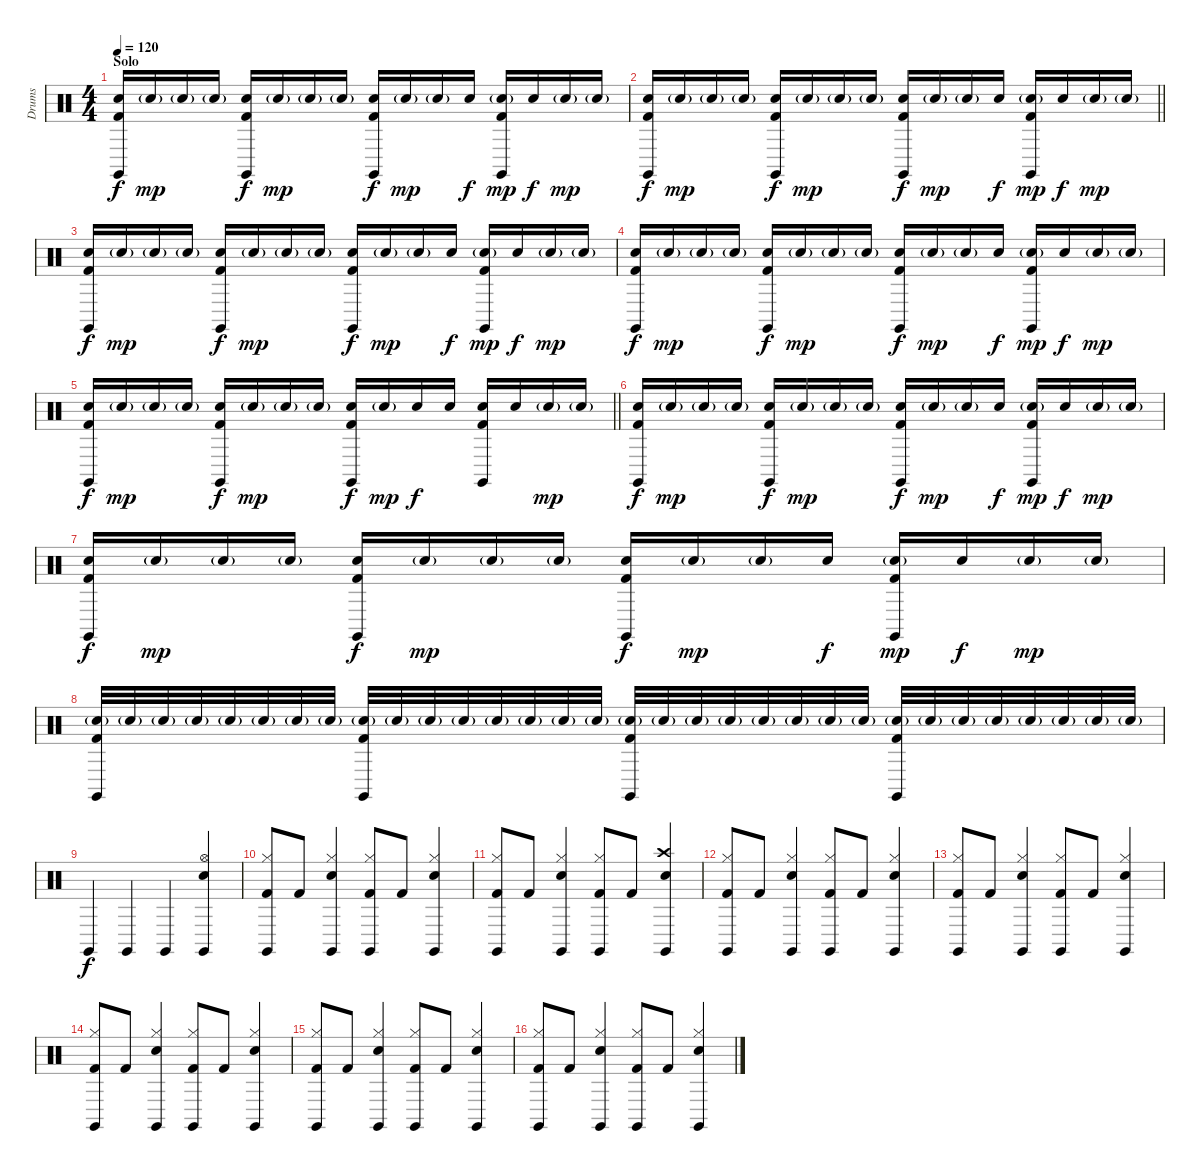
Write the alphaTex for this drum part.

\track ("Drums" "Drums") {instrument percussion}
\staff {score}
\articulation defaults
\ts (4 4)
\section ("" "Solo")
\tempo 120
\clef neutral
\ks c
("Claves (hit)" "Electric Snare (hit)" "Kick (hit) 2").16{dy f} "Electric Snare (hit)"{g}.16{dy mp} "Electric Snare (hit)"{g}.16 "Electric Snare (hit)"{g}.16 ("Claves (hit)" "Electric Snare (hit)" "Kick (hit) 2").16{dy f} "Electric Snare (hit)"{g}.16{dy mp} "Electric Snare (hit)"{g}.16 "Electric Snare (hit)"{g}.16 ("Claves (hit)" "Electric Snare (hit)" "Kick (hit) 2").16{dy f} "Electric Snare (hit)"{g}.16{dy mp} "Electric Snare (hit)"{g}.16 "Electric Snare (hit)".16{dy f} ("Claves (hit)" "Electric Snare (hit)"{g} "Kick (hit) 2").16{dy mp} "Electric Snare (hit)".16{dy f} "Electric Snare (hit)"{g}.16{dy mp} "Electric Snare (hit)"{g}.16 |
\barLineRight lightlight
("Claves (hit)" "Electric Snare (hit)" "Kick (hit) 2").16{dy f} "Electric Snare (hit)"{g}.16{dy mp} "Electric Snare (hit)"{g}.16 "Electric Snare (hit)"{g}.16 ("Claves (hit)" "Electric Snare (hit)" "Kick (hit) 2").16{dy f} "Electric Snare (hit)"{g}.16{dy mp} "Electric Snare (hit)"{g}.16 "Electric Snare (hit)"{g}.16 ("Claves (hit)" "Electric Snare (hit)" "Kick (hit) 2").16{dy f} "Electric Snare (hit)"{g}.16{dy mp} "Electric Snare (hit)"{g}.16 "Electric Snare (hit)".16{dy f} ("Claves (hit)" "Electric Snare (hit)"{g} "Kick (hit) 2").16{dy mp} "Electric Snare (hit)".16{dy f} "Electric Snare (hit)"{g}.16{dy mp} "Electric Snare (hit)"{g}.16 |
("Claves (hit)" "Electric Snare (hit)" "Kick (hit) 2").16{dy f} "Electric Snare (hit)"{g}.16{dy mp} "Electric Snare (hit)"{g}.16 "Electric Snare (hit)"{g}.16 ("Claves (hit)" "Electric Snare (hit)" "Kick (hit) 2").16{dy f} "Electric Snare (hit)"{g}.16{dy mp} "Electric Snare (hit)"{g}.16 "Electric Snare (hit)"{g}.16 ("Claves (hit)" "Electric Snare (hit)" "Kick (hit) 2").16{dy f} "Electric Snare (hit)"{g}.16{dy mp} "Electric Snare (hit)"{g}.16 "Electric Snare (hit)".16{dy f} ("Claves (hit)" "Electric Snare (hit)"{g} "Kick (hit) 2").16{dy mp} "Electric Snare (hit)".16{dy f} "Electric Snare (hit)"{g}.16{dy mp} "Electric Snare (hit)"{g}.16 |
("Claves (hit)" "Electric Snare (hit)" "Kick (hit) 2").16{dy f} "Electric Snare (hit)"{g}.16{dy mp} "Electric Snare (hit)"{g}.16 "Electric Snare (hit)"{g}.16 ("Claves (hit)" "Electric Snare (hit)" "Kick (hit) 2").16{dy f} "Electric Snare (hit)"{g}.16{dy mp} "Electric Snare (hit)"{g}.16 "Electric Snare (hit)"{g}.16 ("Claves (hit)" "Electric Snare (hit)" "Kick (hit) 2").16{dy f} "Electric Snare (hit)"{g}.16{dy mp} "Electric Snare (hit)"{g}.16 "Electric Snare (hit)".16{dy f} ("Claves (hit)" "Electric Snare (hit)"{g} "Kick (hit) 2").16{dy mp} "Electric Snare (hit)".16{dy f} "Electric Snare (hit)"{g}.16{dy mp} "Electric Snare (hit)"{g}.16 |
\barLineRight lightlight
("Claves (hit)" "Electric Snare (hit)" "Kick (hit) 2").16{dy f} "Electric Snare (hit)"{g}.16{dy mp} "Electric Snare (hit)"{g}.16 "Electric Snare (hit)"{g}.16 ("Claves (hit)" "Electric Snare (hit)" "Kick (hit) 2").16{dy f} "Electric Snare (hit)"{g}.16{dy mp} "Electric Snare (hit)"{g}.16 "Electric Snare (hit)"{g}.16 ("Claves (hit)" "Electric Snare (hit)" "Kick (hit) 2").16{dy f} "Electric Snare (hit)"{g}.16{dy mp} "Electric Snare (hit)".16{dy f} "Electric Snare (hit)".16 ("Claves (hit)" "Electric Snare (hit)" "Kick (hit) 2").16 "Electric Snare (hit)".16 "Electric Snare (hit)"{g}.16{dy mp} "Electric Snare (hit)"{g}.16 |
("Claves (hit)" "Electric Snare (hit)" "Kick (hit) 2").16{dy f} "Electric Snare (hit)"{g}.16{dy mp} "Electric Snare (hit)"{g}.16 "Electric Snare (hit)"{g}.16 ("Claves (hit)" "Electric Snare (hit)" "Kick (hit) 2").16{dy f} "Electric Snare (hit)"{g}.16{dy mp} "Electric Snare (hit)"{g}.16 "Electric Snare (hit)"{g}.16 ("Claves (hit)" "Electric Snare (hit)" "Kick (hit) 2").16{dy f} "Electric Snare (hit)"{g}.16{dy mp} "Electric Snare (hit)"{g}.16 "Electric Snare (hit)".16{dy f} ("Claves (hit)" "Electric Snare (hit)"{g} "Kick (hit) 2").16{dy mp} "Electric Snare (hit)".16{dy f} "Electric Snare (hit)"{g}.16{dy mp} "Electric Snare (hit)"{g}.16 |
("Claves (hit)" "Electric Snare (hit)" "Kick (hit) 2").16{dy f} "Electric Snare (hit)"{g}.16{dy mp} "Electric Snare (hit)"{g}.16 "Electric Snare (hit)"{g}.16 ("Claves (hit)" "Electric Snare (hit)" "Kick (hit) 2").16{dy f} "Electric Snare (hit)"{g}.16{dy mp} "Electric Snare (hit)"{g}.16 "Electric Snare (hit)"{g}.16 ("Claves (hit)" "Electric Snare (hit)" "Kick (hit) 2").16{dy f} "Electric Snare (hit)"{g}.16{dy mp} "Electric Snare (hit)"{g}.16 "Electric Snare (hit)".16{dy f} ("Claves (hit)" "Electric Snare (hit)"{g} "Kick (hit) 2").16{dy mp} "Electric Snare (hit)".16{dy f} "Electric Snare (hit)"{g}.16{dy mp} "Electric Snare (hit)"{g}.16 |
("Electric Snare (hit)"{g} "Kick (hit) 2" "Claves (hit)").32 "Electric Snare (hit)"{g}.32 "Electric Snare (hit)"{g}.32 "Electric Snare (hit)"{g}.32 "Electric Snare (hit)"{g}.32 "Electric Snare (hit)"{g}.32 "Electric Snare (hit)"{g}.32 "Electric Snare (hit)"{g}.32 ("Electric Snare (hit)"{g} "Kick (hit) 2" "Claves (hit)").32 "Electric Snare (hit)"{g}.32 "Electric Snare (hit)"{g}.32 "Electric Snare (hit)"{g}.32 "Electric Snare (hit)"{g}.32 "Electric Snare (hit)"{g}.32 "Electric Snare (hit)"{g}.32 "Electric Snare (hit)"{g}.32 ("Electric Snare (hit)"{g} "Kick (hit) 2" "Claves (hit)").32 "Electric Snare (hit)"{g}.32 "Electric Snare (hit)"{g}.32 "Electric Snare (hit)"{g}.32 "Electric Snare (hit)"{g}.32 "Electric Snare (hit)"{g}.32 "Electric Snare (hit)"{g}.32 "Electric Snare (hit)"{g}.32 ("Electric Snare (hit)"{g} "Kick (hit) 2" "Claves (hit)").32 "Electric Snare (hit)"{g}.32 "Electric Snare (hit)"{g}.32 "Electric Snare (hit)"{g}.32 "Electric Snare (hit)"{g}.32 "Electric Snare (hit)"{g}.32 "Electric Snare (hit)"{g}.32 "Electric Snare (hit)"{g}.32 |
"Claves (hit)".4{dy f} "Claves (hit)".4 "Claves (hit)".4 ("Hi-Hat (open)" "Snare (hit) 2" "Claves (hit)").4 |
("Hi-Hat (closed)" "Kick (hit) 2" "Claves (hit)").8 "Kick (hit) 2".8 ("Hi-Hat (closed)" "Snare (hit) 2" "Claves (hit)").4 ("Hi-Hat (closed)" "Kick (hit) 2" "Claves (hit)").8 "Kick (hit) 2".8 ("Hi-Hat (closed)" "Snare (hit) 2" "Claves (hit)").4 |
("Hi-Hat (closed)" "Kick (hit) 2" "Claves (hit)").8 "Kick (hit) 2".8 ("Hi-Hat (closed)" "Snare (hit) 2" "Claves (hit)").4 ("Hi-Hat (closed)" "Kick (hit) 2" "Claves (hit)").8 "Kick (hit) 2".8 ("Crash high (hit)" "Snare (hit) 2" "Claves (hit)").4 |
("Hi-Hat (closed)" "Kick (hit) 2" "Claves (hit)").8 "Kick (hit) 2".8 ("Hi-Hat (closed)" "Snare (hit) 2" "Claves (hit)").4 ("Hi-Hat (closed)" "Kick (hit) 2" "Claves (hit)").8 "Kick (hit) 2".8 ("Hi-Hat (closed)" "Snare (hit) 2" "Claves (hit)").4 |
("Hi-Hat (closed)" "Kick (hit) 2" "Claves (hit)").8 "Kick (hit) 2".8 ("Hi-Hat (closed)" "Snare (hit) 2" "Claves (hit)").4 ("Hi-Hat (closed)" "Kick (hit) 2" "Claves (hit)").8 "Kick (hit) 2".8 ("Hi-Hat (closed)" "Snare (hit) 2" "Claves (hit)").4 |
("Hi-Hat (closed)" "Kick (hit) 2" "Claves (hit)").8 "Kick (hit) 2".8 ("Hi-Hat (closed)" "Snare (hit) 2" "Claves (hit)").4 ("Hi-Hat (closed)" "Kick (hit) 2" "Claves (hit)").8 "Kick (hit) 2".8 ("Hi-Hat (closed)" "Snare (hit) 2" "Claves (hit)").4 |
("Hi-Hat (closed)" "Kick (hit) 2" "Claves (hit)").8 "Kick (hit) 2".8 ("Hi-Hat (closed)" "Snare (hit) 2" "Claves (hit)").4 ("Hi-Hat (closed)" "Kick (hit) 2" "Claves (hit)").8 "Kick (hit) 2".8 ("Hi-Hat (closed)" "Snare (hit) 2" "Claves (hit)").4 |
("Hi-Hat (closed)" "Kick (hit) 2" "Claves (hit)").8 "Kick (hit) 2".8 ("Hi-Hat (closed)" "Snare (hit) 2" "Claves (hit)").4 ("Hi-Hat (closed)" "Kick (hit) 2" "Claves (hit)").8 "Kick (hit) 2".8 ("Hi-Hat (closed)" "Snare (hit) 2" "Claves (hit)").4
